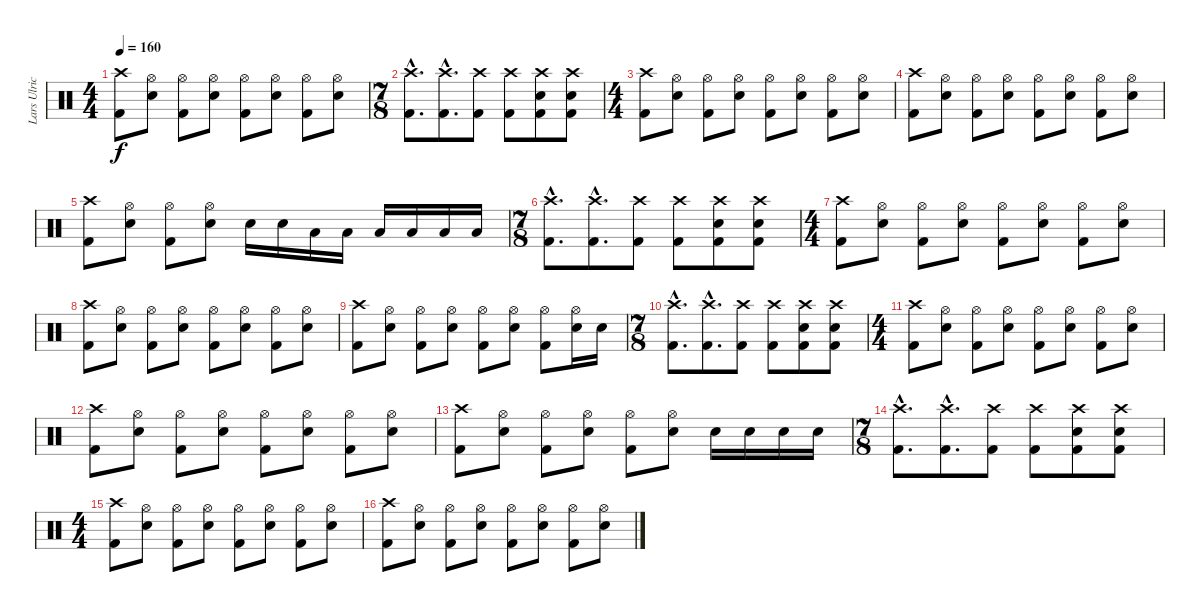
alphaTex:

\track ("Lars Ulrich (Drums)" "Lars Ulric") {instrument percussion}
\staff {score}
\articulation defaults
\ts (4 4)
\tempo 160
\clef neutral
\ks c
("Crash high (hit)" "Kick (hit) 2").8{dy f} ("Hi-Hat (open)" "Electric Snare (hit)").8 ("Hi-Hat (open)" "Kick (hit) 2").8 ("Hi-Hat (open)" "Electric Snare (hit)").8 ("Hi-Hat (open)" "Kick (hit) 2").8 ("Hi-Hat (open)" "Electric Snare (hit)").8 ("Hi-Hat (open)" "Kick (hit) 2").8 ("Hi-Hat (open)" "Electric Snare (hit)").8 |
\ts (7 8)
("Crash high (hit)"{hac} "Kick (hit) 2"{hac}).8{d} ("Crash high (hit)"{hac} "Kick (hit) 2"{hac}).8{d} ("Crash high (hit)" "Kick (hit) 2").8 ("Crash high (hit)" "Kick (hit) 2").8 ("Crash high (hit)" "Electric Snare (hit)" "Kick (hit) 2").8 ("Crash high (hit)" "Electric Snare (hit)" "Kick (hit) 2").8 |
\ts (4 4)
("Crash high (hit)" "Kick (hit) 2").8 ("Hi-Hat (open)" "Electric Snare (hit)").8 ("Hi-Hat (open)" "Kick (hit) 2").8 ("Hi-Hat (open)" "Electric Snare (hit)").8 ("Hi-Hat (open)" "Kick (hit) 2").8 ("Hi-Hat (open)" "Electric Snare (hit)").8 ("Hi-Hat (open)" "Kick (hit) 2").8 ("Hi-Hat (open)" "Electric Snare (hit)").8 |
("Crash high (hit)" "Kick (hit) 2").8 ("Hi-Hat (open)" "Electric Snare (hit)").8 ("Hi-Hat (open)" "Kick (hit) 2").8 ("Hi-Hat (open)" "Electric Snare (hit)").8 ("Hi-Hat (open)" "Kick (hit) 2").8 ("Hi-Hat (open)" "Electric Snare (hit)").8 ("Hi-Hat (open)" "Kick (hit) 2").8 ("Hi-Hat (open)" "Electric Snare (hit)").8 |
("Crash high (hit)" "Kick (hit) 2").8 ("Hi-Hat (open)" "Electric Snare (hit)").8 ("Hi-Hat (open)" "Kick (hit) 2").8 ("Hi-Hat (open)" "Electric Snare (hit)").8 "Electric Snare (hit)".16 "Electric Snare (hit)".16 "Low Tom (hit)".16 "Low Tom (hit)".16 "Low Tom (hit)".16 "Low Tom (hit)".16 "Low Tom (hit)".16 "Low Tom (hit)".16 |
\ts (7 8)
("Crash high (hit)"{hac} "Kick (hit) 2"{hac}).8{d} ("Crash high (hit)"{hac} "Kick (hit) 2"{hac}).8{d} ("Crash high (hit)" "Kick (hit) 2").8 ("Crash high (hit)" "Kick (hit) 2").8 ("Crash high (hit)" "Electric Snare (hit)" "Kick (hit) 2").8 ("Crash high (hit)" "Electric Snare (hit)" "Kick (hit) 2").8 |
\ts (4 4)
("Crash high (hit)" "Kick (hit) 2").8 ("Hi-Hat (open)" "Electric Snare (hit)").8 ("Hi-Hat (open)" "Kick (hit) 2").8 ("Hi-Hat (open)" "Electric Snare (hit)").8 ("Hi-Hat (open)" "Kick (hit) 2").8 ("Hi-Hat (open)" "Electric Snare (hit)").8 ("Hi-Hat (open)" "Kick (hit) 2").8 ("Hi-Hat (open)" "Electric Snare (hit)").8 |
("Crash high (hit)" "Kick (hit) 2").8 ("Hi-Hat (open)" "Electric Snare (hit)").8 ("Hi-Hat (open)" "Kick (hit) 2").8 ("Hi-Hat (open)" "Electric Snare (hit)").8 ("Hi-Hat (open)" "Kick (hit) 2").8 ("Hi-Hat (open)" "Electric Snare (hit)").8 ("Hi-Hat (open)" "Kick (hit) 2").8 ("Hi-Hat (open)" "Electric Snare (hit)").8 |
("Crash high (hit)" "Kick (hit) 2").8 ("Hi-Hat (open)" "Electric Snare (hit)").8 ("Hi-Hat (open)" "Kick (hit) 2").8 ("Hi-Hat (open)" "Electric Snare (hit)").8 ("Hi-Hat (open)" "Kick (hit) 2").8 ("Hi-Hat (open)" "Electric Snare (hit)").8 ("Hi-Hat (open)" "Kick (hit) 2").8 ("Hi-Hat (open)" "Electric Snare (hit)").16 "Electric Snare (hit)".16 |
\ts (7 8)
("Crash high (hit)"{hac} "Kick (hit) 2"{hac}).8{d} ("Crash high (hit)"{hac} "Kick (hit) 2"{hac}).8{d} ("Crash high (hit)" "Kick (hit) 2").8 ("Crash high (hit)" "Kick (hit) 2").8 ("Crash high (hit)" "Electric Snare (hit)" "Kick (hit) 2").8 ("Crash high (hit)" "Electric Snare (hit)" "Kick (hit) 2").8 |
\ts (4 4)
("Crash high (hit)" "Kick (hit) 2").8 ("Hi-Hat (open)" "Electric Snare (hit)").8 ("Hi-Hat (open)" "Kick (hit) 2").8 ("Hi-Hat (open)" "Electric Snare (hit)").8 ("Hi-Hat (open)" "Kick (hit) 2").8 ("Hi-Hat (open)" "Electric Snare (hit)").8 ("Hi-Hat (open)" "Kick (hit) 2").8 ("Hi-Hat (open)" "Electric Snare (hit)").8 |
("Crash high (hit)" "Kick (hit) 2").8 ("Hi-Hat (open)" "Electric Snare (hit)").8 ("Hi-Hat (open)" "Kick (hit) 2").8 ("Hi-Hat (open)" "Electric Snare (hit)").8 ("Hi-Hat (open)" "Kick (hit) 2").8 ("Hi-Hat (open)" "Electric Snare (hit)").8 ("Hi-Hat (open)" "Kick (hit) 2").8 ("Hi-Hat (open)" "Electric Snare (hit)").8 |
("Crash high (hit)" "Kick (hit) 2").8 ("Hi-Hat (open)" "Electric Snare (hit)").8 ("Hi-Hat (open)" "Kick (hit) 2").8 ("Hi-Hat (open)" "Electric Snare (hit)").8 ("Hi-Hat (open)" "Kick (hit) 2").8 ("Hi-Hat (open)" "Electric Snare (hit)").8 "Electric Snare (hit)".16 "Electric Snare (hit)".16 "Electric Snare (hit)".16 "Electric Snare (hit)".16 |
\ts (7 8)
("Crash high (hit)"{hac} "Kick (hit) 2"{hac}).8{d} ("Crash high (hit)"{hac} "Kick (hit) 2"{hac}).8{d} ("Crash high (hit)" "Kick (hit) 2").8 ("Crash high (hit)" "Kick (hit) 2").8 ("Crash high (hit)" "Electric Snare (hit)" "Kick (hit) 2").8 ("Crash high (hit)" "Electric Snare (hit)" "Kick (hit) 2").8 |
\ts (4 4)
("Crash high (hit)" "Kick (hit) 2").8 ("Hi-Hat (open)" "Electric Snare (hit)").8 ("Hi-Hat (open)" "Kick (hit) 2").8 ("Hi-Hat (open)" "Electric Snare (hit)").8 ("Hi-Hat (open)" "Kick (hit) 2").8 ("Hi-Hat (open)" "Electric Snare (hit)").8 ("Hi-Hat (open)" "Kick (hit) 2").8 ("Hi-Hat (open)" "Electric Snare (hit)").8 |
("Crash high (hit)" "Kick (hit) 2").8 ("Hi-Hat (open)" "Electric Snare (hit)").8 ("Hi-Hat (open)" "Kick (hit) 2").8 ("Hi-Hat (open)" "Electric Snare (hit)").8 ("Hi-Hat (open)" "Kick (hit) 2").8 ("Hi-Hat (open)" "Electric Snare (hit)").8 ("Hi-Hat (open)" "Kick (hit) 2").8 ("Hi-Hat (open)" "Electric Snare (hit)").8
